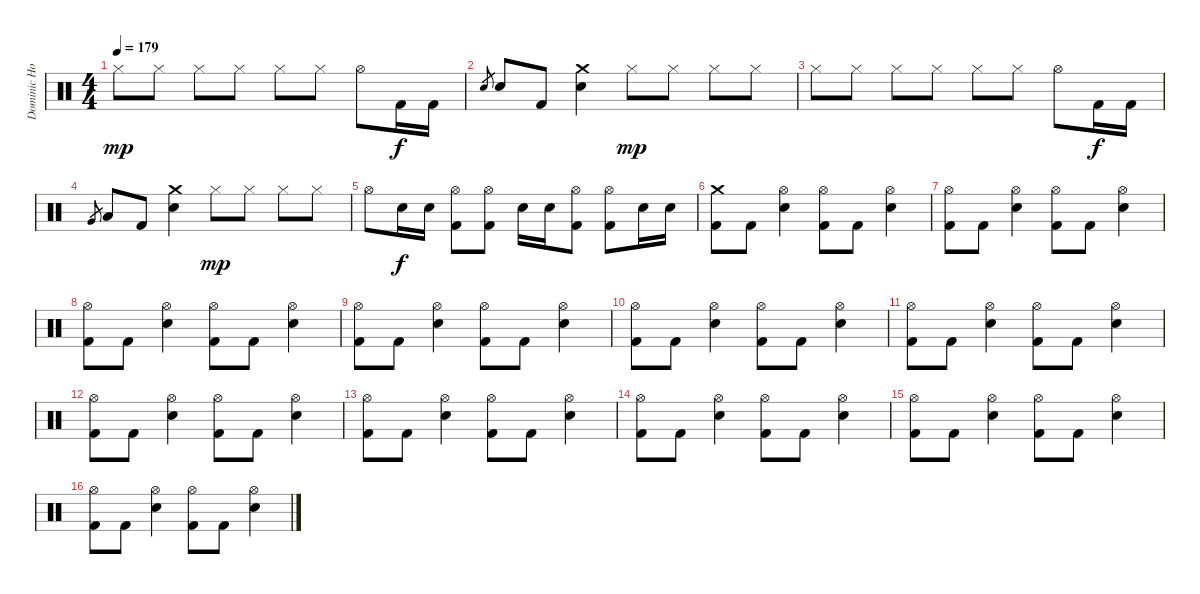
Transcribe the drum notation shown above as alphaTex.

\track ("Dominic Howard" "Dominic Ho") {instrument percussion}
\staff {score}
\articulation defaults
\ts (4 4)
\tempo 179
\clef neutral
\ks c "Hi-Hat (closed)".8{dy mp} "Hi-Hat (closed)".8 "Hi-Hat (closed)".8 "Hi-Hat (closed)".8 "Hi-Hat (closed)".8 "Hi-Hat (closed)".8 "Hi-Hat (open)".8 "Kick (hit) 2".16{dy f} "Kick (hit) 2".16
|
"Electric Snare (hit)".8{gr} "Electric Snare (hit)".8 "Kick (hit) 2".8 ("Crash medium (hit)" "Electric Snare (hit)").4 "Hi-Hat (closed)".8{dy mp} "Hi-Hat (closed)".8 "Hi-Hat (closed)".8 "Hi-Hat (closed)".8 |
"Hi-Hat (closed)".8 "Hi-Hat (closed)".8 "Hi-Hat (closed)".8 "Hi-Hat (closed)".8 "Hi-Hat (closed)".8 "Hi-Hat (closed)".8 "Hi-Hat (open)".8 "Kick (hit) 2".16{dy f} "Kick (hit) 2".16 |
"Very Low Tom (hit)".8{gr} "Low Floor Tom (hit)".8 "Kick (hit) 2".8 ("Crash medium (hit)" "Electric Snare (hit)").4 "Hi-Hat (closed)".8{dy mp} "Hi-Hat (closed)".8 "Hi-Hat (closed)".8 "Hi-Hat (closed)".8 |
"Hi-Hat (open)".8 "Electric Snare (hit)".16{dy f} "Electric Snare (hit)".16 ("Hi-Hat (open)" "Kick (hit) 2").8 ("Hi-Hat (open)" "Kick (hit) 2").8 "Electric Snare (hit)".16 "Electric Snare (hit)".16 ("Hi-Hat (open)" "Kick (hit) 2").8 ("Hi-Hat (open)" "Kick (hit) 2").8 "Electric Snare (hit)".16 "Electric Snare (hit)".16 |
("Crash medium (hit)" "Kick (hit) 2").8 "Kick (hit) 2".8 ("Hi-Hat (open)" "Electric Snare (hit)").4 ("Hi-Hat (open)" "Kick (hit) 2").8 "Kick (hit) 2".8 ("Hi-Hat (open)" "Electric Snare (hit)").4 |
("Hi-Hat (open)" "Kick (hit) 2").8 "Kick (hit) 2".8 ("Hi-Hat (open)" "Electric Snare (hit)").4 ("Hi-Hat (open)" "Kick (hit) 2").8 "Kick (hit) 2".8 ("Hi-Hat (open)" "Electric Snare (hit)").4 |
("Hi-Hat (open)" "Kick (hit) 2").8 "Kick (hit) 2".8 ("Hi-Hat (open)" "Electric Snare (hit)").4 ("Hi-Hat (open)" "Kick (hit) 2").8 "Kick (hit) 2".8 ("Hi-Hat (open)" "Electric Snare (hit)").4 |
("Hi-Hat (open)" "Kick (hit) 2").8 "Kick (hit) 2".8 ("Hi-Hat (open)" "Electric Snare (hit)").4 ("Hi-Hat (open)" "Kick (hit) 2").8 "Kick (hit) 2".8 ("Hi-Hat (open)" "Electric Snare (hit)").4 |
("Hi-Hat (open)" "Kick (hit) 2").8 "Kick (hit) 2".8 ("Hi-Hat (open)" "Electric Snare (hit)").4 ("Hi-Hat (open)" "Kick (hit) 2").8 "Kick (hit) 2".8 ("Hi-Hat (open)" "Electric Snare (hit)").4 |
("Hi-Hat (open)" "Kick (hit) 2").8 "Kick (hit) 2".8 ("Hi-Hat (open)" "Electric Snare (hit)").4 ("Hi-Hat (open)" "Kick (hit) 2").8 "Kick (hit) 2".8 ("Hi-Hat (open)" "Electric Snare (hit)").4 |
("Hi-Hat (open)" "Kick (hit) 2").8 "Kick (hit) 2".8 ("Hi-Hat (open)" "Electric Snare (hit)").4 ("Hi-Hat (open)" "Kick (hit) 2").8 "Kick (hit) 2".8 ("Hi-Hat (open)" "Electric Snare (hit)").4 |
("Hi-Hat (open)" "Kick (hit) 2").8 "Kick (hit) 2".8 ("Hi-Hat (open)" "Electric Snare (hit)").4 ("Hi-Hat (open)" "Kick (hit) 2").8 "Kick (hit) 2".8 ("Hi-Hat (open)" "Electric Snare (hit)").4 |
("Hi-Hat (open)" "Kick (hit) 2").8 "Kick (hit) 2".8 ("Hi-Hat (open)" "Electric Snare (hit)").4 ("Hi-Hat (open)" "Kick (hit) 2").8 "Kick (hit) 2".8 ("Hi-Hat (open)" "Electric Snare (hit)").4 |
("Hi-Hat (open)" "Kick (hit) 2").8 "Kick (hit) 2".8 ("Hi-Hat (open)" "Electric Snare (hit)").4 ("Hi-Hat (open)" "Kick (hit) 2").8 "Kick (hit) 2".8 ("Hi-Hat (open)" "Electric Snare (hit)").4 |
("Hi-Hat (open)" "Kick (hit) 2").8 "Kick (hit) 2".8 ("Hi-Hat (open)" "Electric Snare (hit)").4 ("Hi-Hat (open)" "Kick (hit) 2").8 "Kick (hit) 2".8 ("Hi-Hat (open)" "Electric Snare (hit)").4
